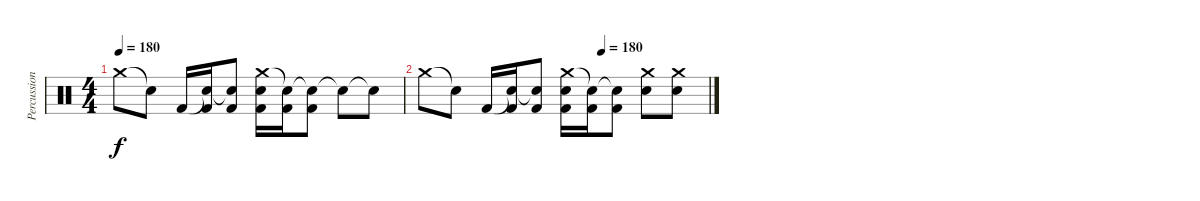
\track ("Percussion" "Percussion") {instrument percussion}
\staff {score}
\articulation defaults
\ts (4 4)
\tempo 180
\clef neutral
\ks c "Crash medium (hit)".8{dy f} "Snare (hit)"{t}.8 "Kick (hit) 2".16
("Snare (hit)"{t} "Kick (hit) 2").16 ("Snare (hit)"{t} "Kick (hit) 2").8 ("Crash medium (hit)" "Electric Snare (hit)" "Kick (hit) 2").16 ("Snare (hit)"{t} "Kick (hit) 2").16 ("Snare (hit)"{t} "Kick (hit) 2").8 "Snare (hit)"{t}.8 "Snare (hit)"{t}.8 |
\tempo (180 0.625)
"Crash medium (hit)".8 "Snare (hit)"{t}.8 "Kick (hit) 2".16 ("Snare (hit)"{t} "Kick (hit) 2").16 ("Snare (hit)"{t} "Kick (hit) 2").8 ("Crash medium (hit)" "Electric Snare (hit)" "Kick (hit) 2").16 ("Snare (hit)"{t} "Kick (hit) 2").16 ("Snare (hit)"{t} "Kick (hit) 2").8 ("Crash medium (hit)" "Electric Snare (hit)").8 ("Crash medium (hit)" "Electric Snare (hit)").8
